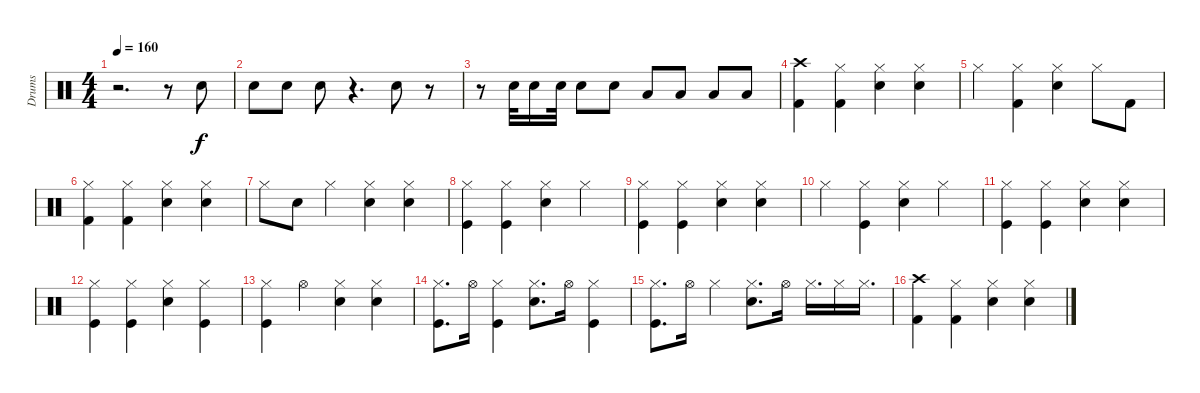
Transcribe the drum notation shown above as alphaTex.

\track ("Drums" "Drums") {instrument percussion}
\staff {score}
\articulation defaults
\ts (4 4)
\tempo 160
\clef neutral
\ks c
r.2{d dy f} r.8 "Snare (hit) 2".8 |
"Snare (hit) 2".8 "Snare (hit) 2".8 "Snare (hit) 2".8 r.4{d} "Snare (hit) 2".8 r.8 |
r.8 "Snare (hit) 2".32 "Snare (hit) 2".16 "Snare (hit) 2".32 "Snare (hit) 2".8 "Snare (hit) 2".8 "Low Tom (hit)".8 "Low Tom (hit)".8 "Low Floor Tom (hit)".8 "Low Floor Tom (hit)".8 |
("Crash high (hit)" "Kick (hit) 2").4 ("Kick (hit) 2" "Hi-Hat (closed)").4 ("Snare (hit) 2" "Hi-Hat (closed)").4 ("Snare (hit) 2" "Hi-Hat (closed)").4 |
"Hi-Hat (closed)".4 ("Kick (hit) 2" "Hi-Hat (closed)").4 ("Snare (hit) 2" "Hi-Hat (closed)").4 "Hi-Hat (closed)".8 "Kick (hit) 2".8 |
("Kick (hit) 2" "Hi-Hat (closed)").4 ("Kick (hit) 2" "Hi-Hat (closed)").4 ("Snare (hit) 2" "Hi-Hat (closed)").4 ("Snare (hit) 2" "Hi-Hat (closed)").4 |
"Hi-Hat (closed)".8 "Snare (hit) 2".8 "Hi-Hat (closed)".4 ("Snare (hit) 2" "Hi-Hat (closed)").4 ("Snare (hit) 2" "Hi-Hat (closed)").4 |
("Kick (hit)" "Hi-Hat (closed)").4 ("Kick (hit)" "Hi-Hat (closed)").4 ("Snare (hit) 2" "Hi-Hat (closed)").4 "Hi-Hat (closed)".4 |
("Kick (hit)" "Hi-Hat (closed)").4 ("Kick (hit)" "Hi-Hat (closed)").4 ("Snare (hit) 2" "Hi-Hat (closed)").4 ("Snare (hit) 2" "Hi-Hat (closed)").4 |
"Hi-Hat (closed)".4 ("Kick (hit)" "Hi-Hat (closed)").4 ("Snare (hit) 2" "Hi-Hat (closed)").4 "Hi-Hat (closed)".4 |
("Kick (hit)" "Hi-Hat (closed)").4 ("Kick (hit)" "Hi-Hat (closed)").4 ("Snare (hit) 2" "Hi-Hat (closed)").4 ("Snare (hit) 2" "Hi-Hat (closed)").4 |
("Kick (hit)" "Hi-Hat (closed)").4 ("Kick (hit)" "Hi-Hat (closed)").4 ("Snare (hit) 2" "Hi-Hat (closed)").4 ("Kick (hit)" "Hi-Hat (closed)").4 |
("Kick (hit)" "Hi-Hat (closed)").4 "Hi-Hat (open)".4 ("Snare (hit) 2" "Hi-Hat (closed)").4 ("Snare (hit) 2" "Hi-Hat (closed)").4 |
("Kick (hit)" "Hi-Hat (closed)").8{d} "Hi-Hat (open)".16 ("Kick (hit)" "Hi-Hat (closed)").4 ("Snare (hit) 2" "Hi-Hat (closed)").8{d} "Hi-Hat (open)".16 ("Kick (hit)" "Hi-Hat (closed)").4 |
("Kick (hit)" "Hi-Hat (closed)").8{d} "Hi-Hat (open)".16 "Hi-Hat (closed)".4 ("Snare (hit) 2" "Hi-Hat (closed)").8{d} "Hi-Hat (open)".16 "Hi-Hat (closed)".16{d} "Hi-Hat (closed)".16 "Hi-Hat (closed)".16{d} |
("Kick (hit) 2" "Crash high (hit)").4 ("Hi-Hat (closed)" "Kick (hit) 2").4 ("Hi-Hat (closed)" "Snare (hit) 2").4 ("Hi-Hat (closed)" "Snare (hit) 2").4
